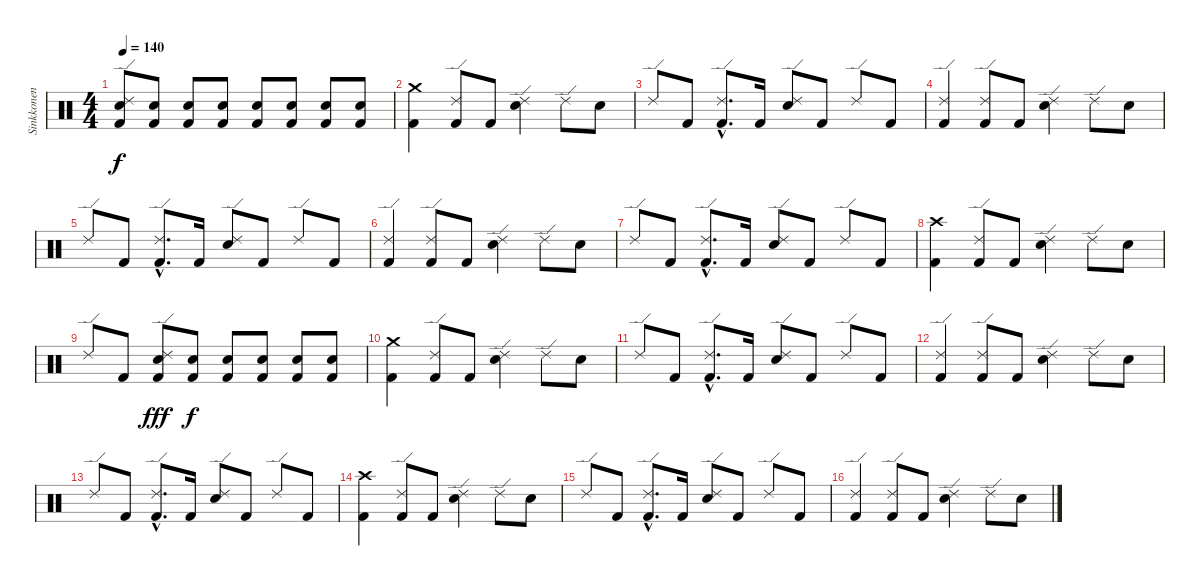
\track ("Sinkkonen" "Sinkkonen") {instrument percussion}
\staff {score}
\articulation defaults
\ts (4 4)
\tempo 140
\clef neutral
\ks c
("Kick (hit) 2" "Ride (edge) 2" "Snare (hit) 2").8{dy f} ("Kick (hit) 2" "Snare (hit) 2").8 ("Kick (hit) 2" "Snare (hit) 2").8 ("Kick (hit) 2" "Snare (hit) 2").8 ("Kick (hit) 2" "Snare (hit) 2").8 ("Kick (hit) 2" "Snare (hit) 2").8 ("Kick (hit) 2" "Snare (hit) 2").8 ("Kick (hit) 2" "Snare (hit) 2").8 |
("Kick (hit) 2" "Crash medium (hit)").4 ("Kick (hit) 2" "Ride (edge) 2").8 "Kick (hit) 2".8 ("Ride (edge) 2" "Snare (hit) 2").4 "Ride (edge) 2".8 "Snare (hit) 2".8 |
"Ride (edge) 2".8 "Kick (hit) 2".8 ("Kick (hit) 2"{hac} "Ride (edge) 2"{hac}).8{d} "Kick (hit) 2".16 ("Ride (edge) 2" "Snare (hit) 2").8 "Kick (hit) 2".8 "Ride (edge) 2".8 "Kick (hit) 2".8 |
("Kick (hit) 2" "Ride (edge) 2").4 ("Kick (hit) 2" "Ride (edge) 2").8 "Kick (hit) 2".8 ("Ride (edge) 2" "Snare (hit) 2").4 "Ride (edge) 2".8 "Snare (hit) 2".8 |
"Ride (edge) 2".8 "Kick (hit) 2".8 ("Kick (hit) 2"{hac} "Ride (edge) 2"{hac}).8{d} "Kick (hit) 2".16 ("Ride (edge) 2" "Snare (hit) 2").8 "Kick (hit) 2".8 "Ride (edge) 2".8 "Kick (hit) 2".8 |
("Kick (hit) 2" "Ride (edge) 2").4 ("Kick (hit) 2" "Ride (edge) 2").8 "Kick (hit) 2".8 ("Ride (edge) 2" "Snare (hit) 2").4 "Ride (edge) 2".8 "Snare (hit) 2".8 |
"Ride (edge) 2".8 "Kick (hit) 2".8 ("Kick (hit) 2"{hac} "Ride (edge) 2"{hac}).8{d} "Kick (hit) 2".16 ("Ride (edge) 2" "Snare (hit) 2").8 "Kick (hit) 2".8 "Ride (edge) 2".8 "Kick (hit) 2".8 |
("Kick (hit) 2" "Crash high (hit)").4 ("Kick (hit) 2" "Ride (edge) 2").8 "Kick (hit) 2".8 ("Ride (edge) 2" "Snare (hit) 2").4 "Ride (edge) 2".8 "Snare (hit) 2".8 |
"Ride (edge) 2".8 "Kick (hit) 2".8 ("Kick (hit) 2" "Ride (edge) 2" "Snare (hit) 2").8{dy fff} ("Kick (hit) 2" "Snare (hit) 2").8{dy f} ("Kick (hit) 2" "Snare (hit) 2").8 ("Kick (hit) 2" "Snare (hit) 2").8 ("Kick (hit) 2" "Snare (hit) 2").8 ("Kick (hit) 2" "Snare (hit) 2").8 |
("Kick (hit) 2" "Crash medium (hit)").4 ("Kick (hit) 2" "Ride (edge) 2").8 "Kick (hit) 2".8 ("Ride (edge) 2" "Snare (hit) 2").4 "Ride (edge) 2".8 "Snare (hit) 2".8 |
"Ride (edge) 2".8 "Kick (hit) 2".8 ("Kick (hit) 2"{hac} "Ride (edge) 2"{hac}).8{d} "Kick (hit) 2".16 ("Ride (edge) 2" "Snare (hit) 2").8 "Kick (hit) 2".8 "Ride (edge) 2".8 "Kick (hit) 2".8 |
("Kick (hit) 2" "Ride (edge) 2").4 ("Kick (hit) 2" "Ride (edge) 2").8 "Kick (hit) 2".8 ("Ride (edge) 2" "Snare (hit) 2").4 "Ride (edge) 2".8 "Snare (hit) 2".8 |
"Ride (edge) 2".8 "Kick (hit) 2".8 ("Kick (hit) 2"{hac} "Ride (edge) 2"{hac}).8{d} "Kick (hit) 2".16 ("Ride (edge) 2" "Snare (hit) 2").8 "Kick (hit) 2".8 "Ride (edge) 2".8 "Kick (hit) 2".8 |
("Kick (hit) 2" "Crash high (hit)").4 ("Kick (hit) 2" "Ride (edge) 2").8 "Kick (hit) 2".8 ("Ride (edge) 2" "Snare (hit) 2").4 "Ride (edge) 2".8 "Snare (hit) 2".8 |
"Ride (edge) 2".8 "Kick (hit) 2".8 ("Kick (hit) 2"{hac} "Ride (edge) 2"{hac}).8{d} "Kick (hit) 2".16 ("Ride (edge) 2" "Snare (hit) 2").8 "Kick (hit) 2".8 "Ride (edge) 2".8 "Kick (hit) 2".8 |
("Kick (hit) 2" "Ride (edge) 2").4 ("Kick (hit) 2" "Ride (edge) 2").8 "Kick (hit) 2".8 ("Ride (edge) 2" "Snare (hit) 2").4 "Ride (edge) 2".8 "Snare (hit) 2".8
